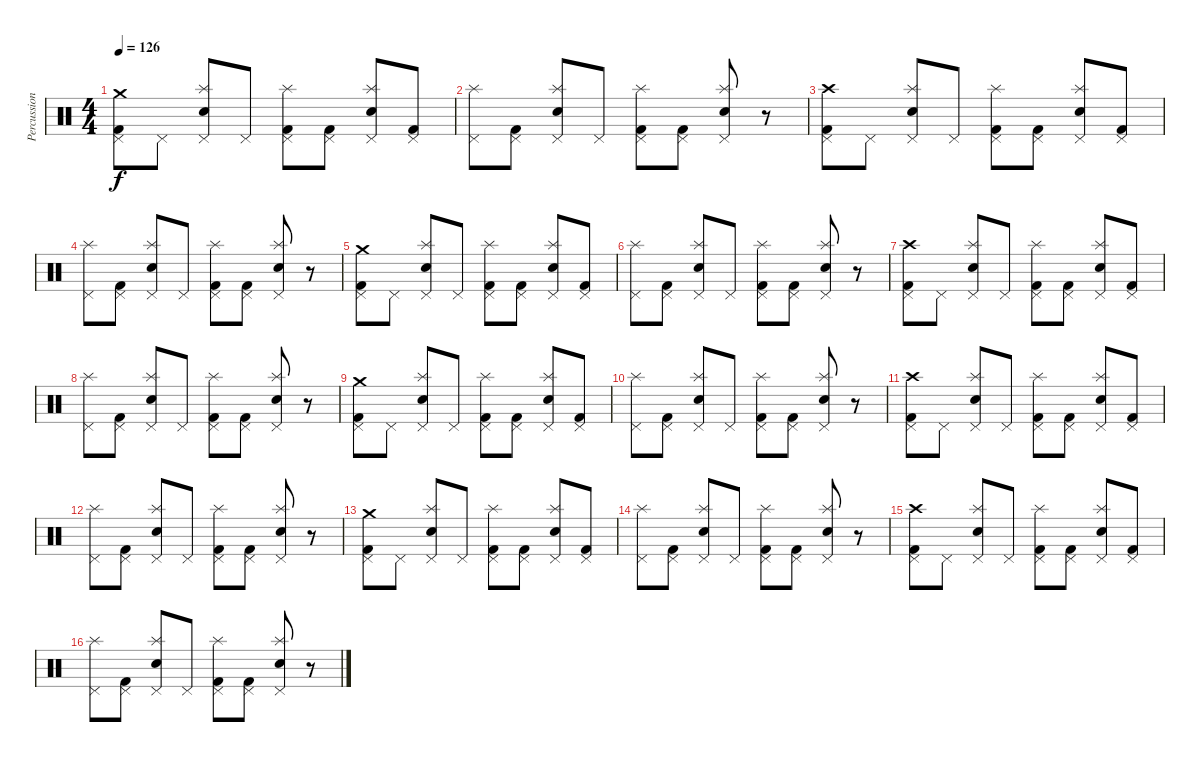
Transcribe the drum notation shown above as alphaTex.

\track ("Percussion" "Percussion") {instrument percussion}
\staff {score}
\articulation defaults
\ts (4 4)
\tempo 126
\clef neutral
\ks c
("Pedal Hi-Hat (hit)" "Kick (hit) 2" "Crash medium (hit)").8{dy f} "Pedal Hi-Hat (hit)".8 ("Pedal Hi-Hat (hit)" "Splash (hit)" "Electric Snare (hit)").8 "Pedal Hi-Hat (hit)".8 ("Pedal Hi-Hat (hit)" "Splash (hit)" "Kick (hit) 2").8 ("Pedal Hi-Hat (hit)" "Kick (hit) 2").8 ("Pedal Hi-Hat (hit)" "Splash (hit)" "Electric Snare (hit)").8 ("Pedal Hi-Hat (hit)" "Kick (hit) 2").8 |
("Pedal Hi-Hat (hit)" "Splash (hit)").8 ("Pedal Hi-Hat (hit)" "Kick (hit) 2").8 ("Pedal Hi-Hat (hit)" "Splash (hit)" "Electric Snare (hit)").8 "Pedal Hi-Hat (hit)".8 ("Pedal Hi-Hat (hit)" "Splash (hit)" "Kick (hit) 2").8 ("Pedal Hi-Hat (hit)" "Kick (hit) 2").8 ("Pedal Hi-Hat (hit)" "Splash (hit)" "Electric Snare (hit)").8 r.8 |
("Pedal Hi-Hat (hit)" "Kick (hit) 2" "Crash high (hit)").8 "Pedal Hi-Hat (hit)".8 ("Pedal Hi-Hat (hit)" "Electric Snare (hit)" "Splash (hit)").8 "Pedal Hi-Hat (hit)".8 ("Pedal Hi-Hat (hit)" "Kick (hit) 2" "Splash (hit)").8 ("Kick (hit) 2" "Pedal Hi-Hat (hit)").8 ("Splash (hit)" "Electric Snare (hit)" "Pedal Hi-Hat (hit)").8 ("Pedal Hi-Hat (hit)" "Kick (hit) 2").8 |
("Splash (hit)" "Pedal Hi-Hat (hit)").8 ("Kick (hit) 2" "Pedal Hi-Hat (hit)").8 ("Splash (hit)" "Electric Snare (hit)" "Pedal Hi-Hat (hit)").8 "Pedal Hi-Hat (hit)".8 ("Splash (hit)" "Kick (hit) 2" "Pedal Hi-Hat (hit)").8 ("Pedal Hi-Hat (hit)" "Kick (hit) 2").8 ("Pedal Hi-Hat (hit)" "Electric Snare (hit)" "Splash (hit)").8 r.8 |
("Pedal Hi-Hat (hit)" "Kick (hit) 2" "Crash medium (hit)").8 "Pedal Hi-Hat (hit)".8 ("Pedal Hi-Hat (hit)" "Splash (hit)" "Electric Snare (hit)").8 "Pedal Hi-Hat (hit)".8 ("Pedal Hi-Hat (hit)" "Splash (hit)" "Kick (hit) 2").8 ("Pedal Hi-Hat (hit)" "Kick (hit) 2").8 ("Pedal Hi-Hat (hit)" "Splash (hit)" "Electric Snare (hit)").8 ("Pedal Hi-Hat (hit)" "Kick (hit) 2").8 |
("Pedal Hi-Hat (hit)" "Splash (hit)").8 ("Pedal Hi-Hat (hit)" "Kick (hit) 2").8 ("Pedal Hi-Hat (hit)" "Splash (hit)" "Electric Snare (hit)").8 "Pedal Hi-Hat (hit)".8 ("Pedal Hi-Hat (hit)" "Splash (hit)" "Kick (hit) 2").8 ("Pedal Hi-Hat (hit)" "Kick (hit) 2").8 ("Pedal Hi-Hat (hit)" "Splash (hit)" "Electric Snare (hit)").8 r.8 |
("Pedal Hi-Hat (hit)" "Kick (hit) 2" "Crash high (hit)").8 "Pedal Hi-Hat (hit)".8 ("Pedal Hi-Hat (hit)" "Electric Snare (hit)" "Splash (hit)").8 "Pedal Hi-Hat (hit)".8 ("Pedal Hi-Hat (hit)" "Kick (hit) 2" "Splash (hit)").8 ("Kick (hit) 2" "Pedal Hi-Hat (hit)").8 ("Splash (hit)" "Electric Snare (hit)" "Pedal Hi-Hat (hit)").8 ("Pedal Hi-Hat (hit)" "Kick (hit) 2").8 |
("Splash (hit)" "Pedal Hi-Hat (hit)").8 ("Kick (hit) 2" "Pedal Hi-Hat (hit)").8 ("Splash (hit)" "Electric Snare (hit)" "Pedal Hi-Hat (hit)").8 "Pedal Hi-Hat (hit)".8 ("Splash (hit)" "Kick (hit) 2" "Pedal Hi-Hat (hit)").8 ("Pedal Hi-Hat (hit)" "Kick (hit) 2").8 ("Pedal Hi-Hat (hit)" "Electric Snare (hit)" "Splash (hit)").8 r.8 |
("Pedal Hi-Hat (hit)" "Kick (hit) 2" "Crash medium (hit)").8 "Pedal Hi-Hat (hit)".8 ("Pedal Hi-Hat (hit)" "Splash (hit)" "Electric Snare (hit)").8 "Pedal Hi-Hat (hit)".8 ("Pedal Hi-Hat (hit)" "Splash (hit)" "Kick (hit) 2").8 ("Pedal Hi-Hat (hit)" "Kick (hit) 2").8 ("Pedal Hi-Hat (hit)" "Splash (hit)" "Electric Snare (hit)").8 ("Pedal Hi-Hat (hit)" "Kick (hit) 2").8 |
("Pedal Hi-Hat (hit)" "Splash (hit)").8 ("Pedal Hi-Hat (hit)" "Kick (hit) 2").8 ("Pedal Hi-Hat (hit)" "Splash (hit)" "Electric Snare (hit)").8 "Pedal Hi-Hat (hit)".8 ("Pedal Hi-Hat (hit)" "Splash (hit)" "Kick (hit) 2").8 ("Pedal Hi-Hat (hit)" "Kick (hit) 2").8 ("Pedal Hi-Hat (hit)" "Splash (hit)" "Electric Snare (hit)").8 r.8 |
("Pedal Hi-Hat (hit)" "Kick (hit) 2" "Crash high (hit)").8 "Pedal Hi-Hat (hit)".8 ("Pedal Hi-Hat (hit)" "Electric Snare (hit)" "Splash (hit)").8 "Pedal Hi-Hat (hit)".8 ("Pedal Hi-Hat (hit)" "Kick (hit) 2" "Splash (hit)").8 ("Kick (hit) 2" "Pedal Hi-Hat (hit)").8 ("Splash (hit)" "Electric Snare (hit)" "Pedal Hi-Hat (hit)").8 ("Pedal Hi-Hat (hit)" "Kick (hit) 2").8 |
("Splash (hit)" "Pedal Hi-Hat (hit)").8 ("Kick (hit) 2" "Pedal Hi-Hat (hit)").8 ("Splash (hit)" "Electric Snare (hit)" "Pedal Hi-Hat (hit)").8 "Pedal Hi-Hat (hit)".8 ("Splash (hit)" "Kick (hit) 2" "Pedal Hi-Hat (hit)").8 ("Pedal Hi-Hat (hit)" "Kick (hit) 2").8 ("Pedal Hi-Hat (hit)" "Electric Snare (hit)" "Splash (hit)").8 r.8 |
("Pedal Hi-Hat (hit)" "Kick (hit) 2" "Crash medium (hit)").8 "Pedal Hi-Hat (hit)".8 ("Pedal Hi-Hat (hit)" "Splash (hit)" "Electric Snare (hit)").8 "Pedal Hi-Hat (hit)".8 ("Pedal Hi-Hat (hit)" "Splash (hit)" "Kick (hit) 2").8 ("Pedal Hi-Hat (hit)" "Kick (hit) 2").8 ("Pedal Hi-Hat (hit)" "Splash (hit)" "Electric Snare (hit)").8 ("Pedal Hi-Hat (hit)" "Kick (hit) 2").8 |
("Pedal Hi-Hat (hit)" "Splash (hit)").8 ("Pedal Hi-Hat (hit)" "Kick (hit) 2").8 ("Pedal Hi-Hat (hit)" "Splash (hit)" "Electric Snare (hit)").8 "Pedal Hi-Hat (hit)".8 ("Pedal Hi-Hat (hit)" "Splash (hit)" "Kick (hit) 2").8 ("Pedal Hi-Hat (hit)" "Kick (hit) 2").8 ("Pedal Hi-Hat (hit)" "Splash (hit)" "Electric Snare (hit)").8 r.8 |
("Pedal Hi-Hat (hit)" "Kick (hit) 2" "Crash high (hit)").8 "Pedal Hi-Hat (hit)".8 ("Pedal Hi-Hat (hit)" "Electric Snare (hit)" "Splash (hit)").8 "Pedal Hi-Hat (hit)".8 ("Pedal Hi-Hat (hit)" "Kick (hit) 2" "Splash (hit)").8 ("Kick (hit) 2" "Pedal Hi-Hat (hit)").8 ("Splash (hit)" "Electric Snare (hit)" "Pedal Hi-Hat (hit)").8 ("Pedal Hi-Hat (hit)" "Kick (hit) 2").8 |
("Splash (hit)" "Pedal Hi-Hat (hit)").8 ("Kick (hit) 2" "Pedal Hi-Hat (hit)").8 ("Splash (hit)" "Electric Snare (hit)" "Pedal Hi-Hat (hit)").8 "Pedal Hi-Hat (hit)".8 ("Splash (hit)" "Kick (hit) 2" "Pedal Hi-Hat (hit)").8 ("Pedal Hi-Hat (hit)" "Kick (hit) 2").8 ("Pedal Hi-Hat (hit)" "Electric Snare (hit)" "Splash (hit)").8 r.8
